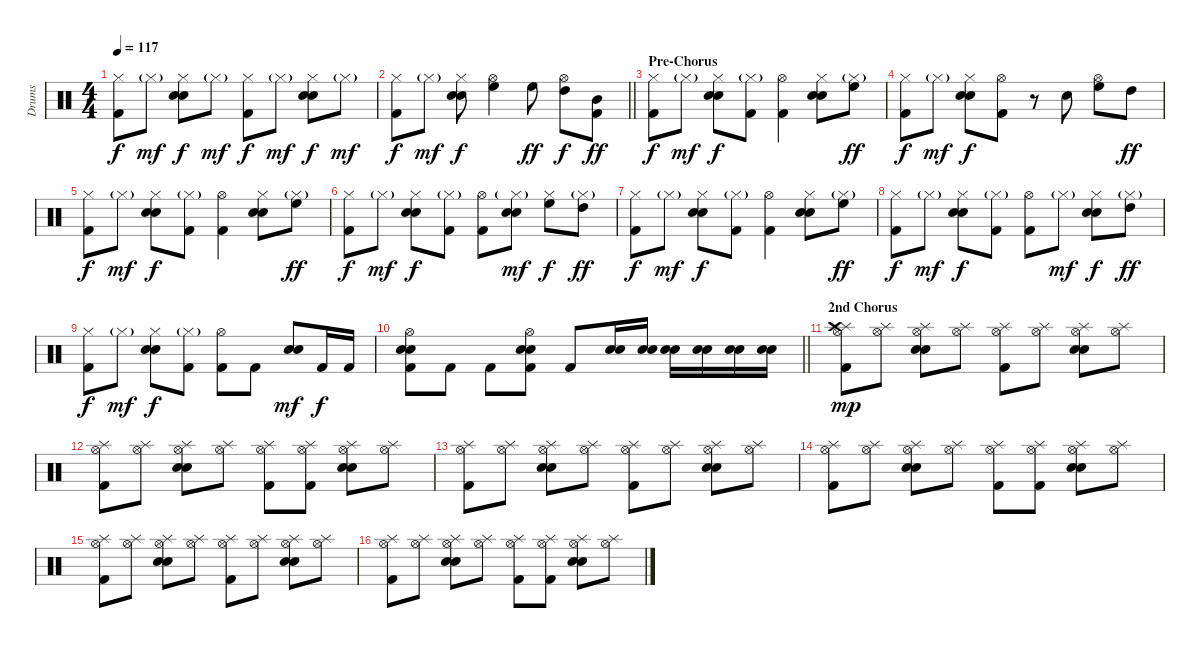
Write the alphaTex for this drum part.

\track ("Drums" "Drums") {instrument percussion}
\staff {score}
\articulation defaults
\ts (4 4)
\tempo 117
\clef neutral
\ks c
("Hi-Hat (closed)" "Kick (hit) 2").8{dy f} "Hi-Hat (closed)"{g}.8{dy mf} ("Hi-Hat (closed)" "Snare (hit) 2" "Snare (hit) 2").8{dy f} "Hi-Hat (closed)"{g}.8{dy mf} ("Hi-Hat (closed)" "Kick (hit) 2").8{dy f} "Hi-Hat (closed)"{g}.8{dy mf} ("Hi-Hat (closed)" "Snare (hit) 2" "Snare (hit) 2").8{dy f} "Hi-Hat (closed)"{g}.8{dy mf} |
\barLineRight lightlight
("Hi-Hat (closed)" "Kick (hit) 2").8{dy f} "Hi-Hat (closed)"{g}.8{dy mf} ("Hi-Hat (closed)" "Snare (hit) 2" "Snare (hit) 2").8{dy f} ("Hi-Hat (open)" "High Floor Tom (hit)").4 "High Floor Tom (hit)".8{dy ff} ("Hi-Hat (open)" "High Tom (hit)").8{dy f} ("Mid Tom (hit)" "Kick (hit) 2").8{dy ff} |
\section ("" "Pre-Chorus")
("Hi-Hat (closed)" "Kick (hit) 2").8{dy f} "Hi-Hat (closed)"{g}.8{dy mf} ("Hi-Hat (closed)" "Snare (hit) 2" "Snare (hit) 2").8{dy f} ("Hi-Hat (closed)"{g} "Kick (hit) 2").8 ("Hi-Hat (open)" "Kick (hit) 2").4 ("Hi-Hat (closed)" "Snare (hit) 2" "Snare (hit) 2").8 ("Hi-Hat (closed)"{g} "High Floor Tom (hit)").8{dy ff} |
("Hi-Hat (closed)" "Kick (hit) 2").8{dy f} "Hi-Hat (closed)"{g}.8{dy mf} ("Hi-Hat (closed)" "Snare (hit) 2" "Snare (hit) 2").8{dy f} ("Hi-Hat (open)" "Kick (hit) 2").8 r.8 "Snare (hit) 2".8 ("Hi-Hat (open)" "High Floor Tom (hit)").8 "High Tom (hit)".8{dy ff} |
("Hi-Hat (closed)" "Kick (hit) 2").8{dy f} "Hi-Hat (closed)"{g}.8{dy mf} ("Hi-Hat (closed)" "Snare (hit) 2" "Snare (hit) 2").8{dy f} ("Hi-Hat (closed)"{g} "Kick (hit) 2").8 ("Hi-Hat (open)" "Kick (hit) 2").4 ("Hi-Hat (closed)" "Snare (hit) 2" "Snare (hit) 2").8 ("Hi-Hat (closed)"{g} "High Floor Tom (hit)").8{dy ff} |
("Hi-Hat (closed)" "Kick (hit) 2").8{dy f} "Hi-Hat (closed)"{g}.8{dy mf} ("Hi-Hat (closed)" "Snare (hit) 2" "Snare (hit) 2").8{dy f} ("Hi-Hat (closed)"{g} "Kick (hit) 2").8 ("Hi-Hat (open)" "Kick (hit) 2").8 ("Hi-Hat (closed)"{g} "Snare (hit) 2" "Snare (hit) 2").8{dy mf} ("Hi-Hat (closed)" "High Floor Tom (hit)").8{dy f} ("Hi-Hat (closed)"{g} "High Tom (hit)").8{dy ff} |
("Hi-Hat (closed)" "Kick (hit) 2").8{dy f} "Hi-Hat (closed)"{g}.8{dy mf} ("Hi-Hat (closed)" "Snare (hit) 2" "Snare (hit) 2").8{dy f} ("Hi-Hat (closed)"{g} "Kick (hit) 2").8 ("Hi-Hat (open)" "Kick (hit) 2").4 ("Hi-Hat (closed)" "Snare (hit) 2" "Snare (hit) 2").8 ("Hi-Hat (closed)"{g} "High Floor Tom (hit)").8{dy ff} |
("Hi-Hat (closed)" "Kick (hit) 2").8{dy f} "Hi-Hat (closed)"{g}.8{dy mf} ("Hi-Hat (closed)" "Snare (hit) 2" "Snare (hit) 2").8{dy f} ("Hi-Hat (closed)"{g} "Kick (hit) 2").8 ("Hi-Hat (open)" "Kick (hit) 2").8 "Hi-Hat (closed)"{g}.8{dy mf} ("Hi-Hat (closed)" "Snare (hit) 2" "Snare (hit) 2").8{dy f} ("Hi-Hat (closed)"{g} "High Tom (hit)").8{dy ff} |
("Hi-Hat (closed)" "Kick (hit) 2").8{dy f} "Hi-Hat (closed)"{g}.8{dy mf} ("Hi-Hat (closed)" "Snare (hit) 2" "Snare (hit) 2").8{dy f} ("Hi-Hat (closed)"{g} "Kick (hit) 2").8 ("Hi-Hat (open)" "Kick (hit) 2").8 "Kick (hit) 2".8 ("Snare (hit) 2" "Snare (hit) 2").8{dy mf} "Kick (hit) 2".16{dy f} "Kick (hit) 2".16 |
\barLineRight lightlight
("Hi-Hat (open)" "Snare (hit) 2" "Snare (hit) 2" "Kick (hit) 2").8 "Kick (hit) 2".8 "Kick (hit) 2".8 ("Hi-Hat (open)" "Snare (hit) 2" "Snare (hit) 2" "Kick (hit) 2").8 "Kick (hit) 2".8 ("Snare (hit) 2" "Snare (hit) 2").16 ("Snare (hit) 2" "Snare (hit) 2").16 ("Snare (hit) 2" "Snare (hit) 2").16 ("Snare (hit) 2" "Snare (hit) 2").16 ("Snare (hit) 2" "Snare (hit) 2").16 ("Snare (hit) 2" "Snare (hit) 2").16 |
\section ("" "2nd Chorus")
("Splash (hit)" "Crash high (hit)" "Hi-Hat (open)" "Kick (hit) 2").8{dy mp} ("Splash (hit)" "Hi-Hat (open)").8 ("Splash (hit)" "Hi-Hat (open)" "Snare (hit) 2" "Snare (hit) 2").8 ("Splash (hit)" "Hi-Hat (open)").8 ("Splash (hit)" "Hi-Hat (open)" "Kick (hit) 2").8 ("Splash (hit)" "Hi-Hat (open)").8 ("Splash (hit)" "Hi-Hat (open)" "Snare (hit) 2" "Snare (hit) 2").8 ("Splash (hit)" "Hi-Hat (open)").8 |
("Splash (hit)" "Hi-Hat (open)" "Kick (hit) 2").8 ("Splash (hit)" "Hi-Hat (open)").8 ("Splash (hit)" "Hi-Hat (open)" "Snare (hit) 2" "Snare (hit) 2").8 ("Splash (hit)" "Hi-Hat (open)").8 ("Splash (hit)" "Hi-Hat (open)" "Kick (hit) 2").8 ("Splash (hit)" "Hi-Hat (open)" "Kick (hit) 2").8 ("Splash (hit)" "Hi-Hat (open)" "Snare (hit) 2" "Snare (hit) 2").8 ("Splash (hit)" "Hi-Hat (open)").8 |
("Splash (hit)" "Hi-Hat (open)" "Kick (hit) 2").8 ("Splash (hit)" "Hi-Hat (open)").8 ("Splash (hit)" "Hi-Hat (open)" "Snare (hit) 2" "Snare (hit) 2").8 ("Splash (hit)" "Hi-Hat (open)").8 ("Splash (hit)" "Hi-Hat (open)" "Kick (hit) 2").8 ("Splash (hit)" "Hi-Hat (open)").8 ("Splash (hit)" "Hi-Hat (open)" "Snare (hit) 2" "Snare (hit) 2").8 ("Splash (hit)" "Hi-Hat (open)").8 |
("Splash (hit)" "Hi-Hat (open)" "Kick (hit) 2").8 ("Splash (hit)" "Hi-Hat (open)").8 ("Splash (hit)" "Hi-Hat (open)" "Snare (hit) 2" "Snare (hit) 2").8 ("Splash (hit)" "Hi-Hat (open)").8 ("Splash (hit)" "Hi-Hat (open)" "Kick (hit) 2").8 ("Splash (hit)" "Hi-Hat (open)" "Kick (hit) 2").8 ("Splash (hit)" "Hi-Hat (open)" "Snare (hit) 2" "Snare (hit) 2").8 ("Splash (hit)" "Hi-Hat (open)").8 |
("Splash (hit)" "Hi-Hat (open)" "Kick (hit) 2").8 ("Splash (hit)" "Hi-Hat (open)").8 ("Splash (hit)" "Hi-Hat (open)" "Snare (hit) 2" "Snare (hit) 2").8 ("Splash (hit)" "Hi-Hat (open)").8 ("Splash (hit)" "Hi-Hat (open)" "Kick (hit) 2").8 ("Splash (hit)" "Hi-Hat (open)").8 ("Splash (hit)" "Hi-Hat (open)" "Snare (hit) 2" "Snare (hit) 2").8 ("Splash (hit)" "Hi-Hat (open)").8 |
("Splash (hit)" "Hi-Hat (open)" "Kick (hit) 2").8 ("Splash (hit)" "Hi-Hat (open)").8 ("Splash (hit)" "Hi-Hat (open)" "Snare (hit) 2" "Snare (hit) 2").8 ("Splash (hit)" "Hi-Hat (open)").8 ("Splash (hit)" "Hi-Hat (open)" "Kick (hit) 2").8 ("Splash (hit)" "Hi-Hat (open)" "Kick (hit) 2").8 ("Splash (hit)" "Hi-Hat (open)" "Snare (hit) 2" "Snare (hit) 2").8 ("Splash (hit)" "Hi-Hat (open)").8
